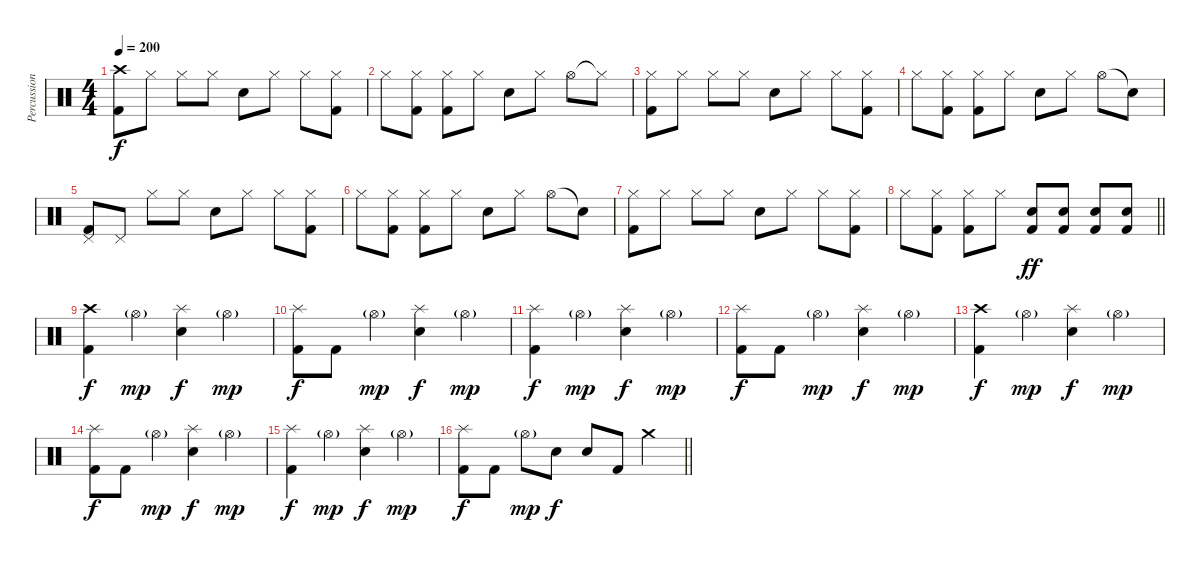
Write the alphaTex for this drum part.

\track ("Percussion" "Percussion") {instrument percussion}
\staff {score}
\articulation defaults
\ts (4 4)
\section ("" "")
\tempo 200
\clef neutral
\ks c
("Crash high (hit)" "Kick (hit) 2").8{dy f} "Hi-Hat (closed)".8 "Hi-Hat (closed)".8 "Hi-Hat (closed)".8 "Electric Snare (hit)".8 "Hi-Hat (closed)".8 "Hi-Hat (closed)".8 ("Hi-Hat (closed)" "Kick (hit) 2").8 |
"Hi-Hat (closed)".8 ("Hi-Hat (closed)" "Kick (hit) 2").8 ("Hi-Hat (closed)" "Kick (hit) 2").8 "Hi-Hat (closed)".8 "Electric Snare (hit)".8 "Hi-Hat (closed)".8 "Hi-Hat (open)".8 "Hi-Hat (closed)"{t}.8 |
("Hi-Hat (closed)" "Kick (hit) 2").8 "Hi-Hat (closed)".8 "Hi-Hat (closed)".8 "Hi-Hat (closed)".8 "Electric Snare (hit)".8 "Hi-Hat (closed)".8 "Hi-Hat (closed)".8 ("Hi-Hat (closed)" "Kick (hit) 2").8 |
"Hi-Hat (closed)".8 ("Hi-Hat (closed)" "Kick (hit) 2").8 ("Hi-Hat (closed)" "Kick (hit) 2").8 "Hi-Hat (closed)".8 "Electric Snare (hit)".8 "Hi-Hat (closed)".8 "Hi-Hat (open)".8 "Snare (hit)"{t}.8 |
("Pedal Hi-Hat (hit)" "Kick (hit) 2").8 "Pedal Hi-Hat (hit)".8 "Hi-Hat (closed)".8 "Hi-Hat (closed)".8 "Electric Snare (hit)".8 "Hi-Hat (closed)".8 "Hi-Hat (closed)".8 ("Hi-Hat (closed)" "Kick (hit) 2").8 |
"Hi-Hat (closed)".8 ("Hi-Hat (closed)" "Kick (hit) 2").8 ("Hi-Hat (closed)" "Kick (hit) 2").8 "Hi-Hat (closed)".8 "Electric Snare (hit)".8 "Hi-Hat (closed)".8 "Hi-Hat (open)".8 "Snare (hit)"{t}.8 |
("Hi-Hat (closed)" "Kick (hit) 2").8 "Hi-Hat (closed)".8 "Hi-Hat (closed)".8 "Hi-Hat (closed)".8 "Electric Snare (hit)".8 "Hi-Hat (closed)".8 "Hi-Hat (closed)".8 ("Hi-Hat (closed)" "Kick (hit) 2").8 |
\barLineRight lightlight "Hi-Hat (closed)".8
("Hi-Hat (closed)" "Kick (hit) 2").8 ("Hi-Hat (closed)" "Kick (hit) 2").8 "Hi-Hat (closed)".8 ("Electric Snare (hit)" "Kick (hit) 2").8{dy ff} ("Electric Snare (hit)" "Kick (hit) 2").8 ("Electric Snare (hit)" "Kick (hit) 2").8 ("Electric Snare (hit)" "Kick (hit) 2").8 |
\section ("" "")
("Crash high (hit)" "Kick (hit) 2").4{dy f} "Hi-Hat (open)"{g}.4{dy mp} ("Splash (hit)" "Electric Snare (hit)").4{dy f} "Hi-Hat (open)"{g}.4{dy mp} |
("Splash (hit)" "Kick (hit) 2").8{dy f} "Kick (hit) 2".8 "Hi-Hat (open)"{g}.4{dy mp} ("Splash (hit)" "Electric Snare (hit)").4{dy f} "Hi-Hat (open)"{g}.4{dy mp} |
("Splash (hit)" "Kick (hit) 2").4{dy f} "Hi-Hat (open)"{g}.4{dy mp} ("Splash (hit)" "Electric Snare (hit)").4{dy f} "Hi-Hat (open)"{g}.4{dy mp} |
("Splash (hit)" "Kick (hit) 2").8{dy f} "Kick (hit) 2".8 "Hi-Hat (open)"{g}.4{dy mp} ("Splash (hit)" "Electric Snare (hit)").4{dy f} "Hi-Hat (open)"{g}.4{dy mp} |
("Crash high (hit)" "Kick (hit) 2").4{dy f} "Hi-Hat (open)"{g}.4{dy mp} ("Splash (hit)" "Electric Snare (hit)").4{dy f} "Hi-Hat (open)"{g}.4{dy mp} |
("Splash (hit)" "Kick (hit) 2").8{dy f} "Kick (hit) 2".8 "Hi-Hat (open)"{g}.4{dy mp} ("Splash (hit)" "Electric Snare (hit)").4{dy f} "Hi-Hat (open)"{g}.4{dy mp} |
("Splash (hit)" "Kick (hit) 2").4{dy f} "Hi-Hat (open)"{g}.4{dy mp} ("Splash (hit)" "Electric Snare (hit)").4{dy f} "Hi-Hat (open)"{g}.4{dy mp} |
\barLineRight lightlight
("Splash (hit)" "Kick (hit) 2").8{dy f} "Kick (hit) 2".8 "Hi-Hat (open)"{g}.8{dy mp} "Electric Snare (hit)".8{dy f} "Electric Snare (hit)".8 "Kick (hit) 2".8 "Crash medium (hit)".4
